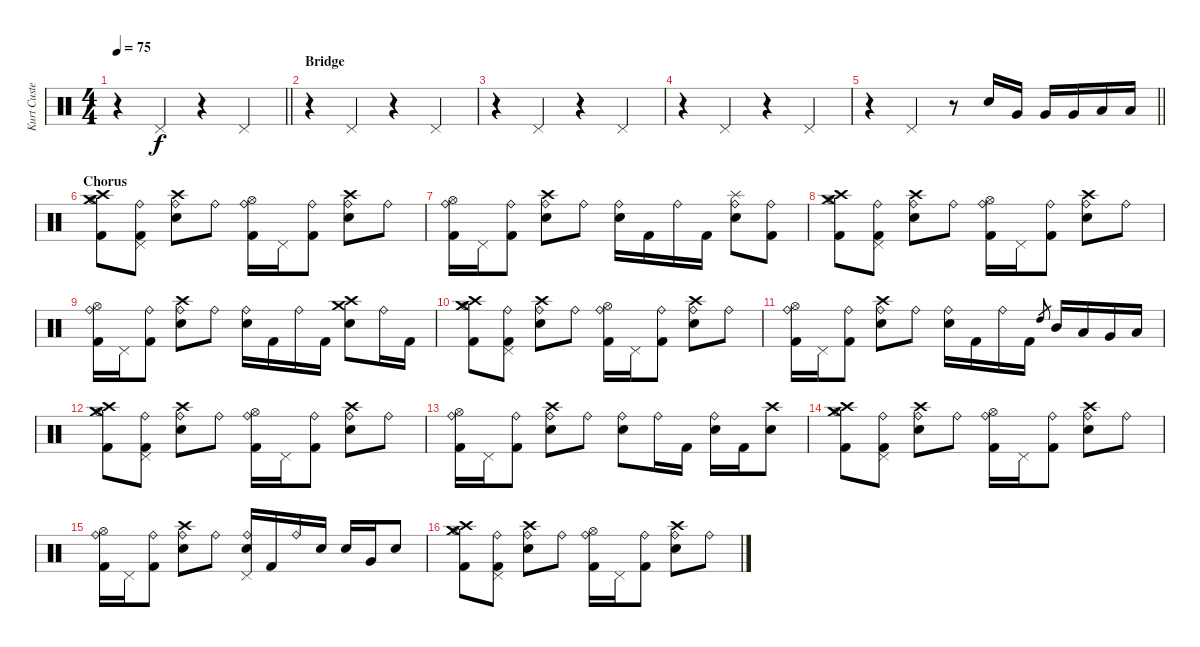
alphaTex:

\track ("Kurt Custer - Drums and Percussion" "Kurt Custe") {instrument percussion}
\staff
\articulation defaults
\ts (4 4)
\tempo 75
\clef neutral
\barLineRight lightlight
\ks c
r.4{dy ppp} "Pedal Hi-Hat (hit)".4{dy f} r.4 "Pedal Hi-Hat (hit)".4 |
\section ("" "Bridge")
r.4 "Pedal Hi-Hat (hit)".4 r.4 "Pedal Hi-Hat (hit)".4 |
r.4 "Pedal Hi-Hat (hit)".4 r.4 "Pedal Hi-Hat (hit)".4 |
r.4 "Pedal Hi-Hat (hit)".4 r.4 "Pedal Hi-Hat (hit)".4 |
\barLineRight lightlight
r.4 "Pedal Hi-Hat (hit)".4 r.8 "Snare (hit) 2".16 "Very Low Tom (hit)".16 "Very Low Tom (hit)".16 "Very Low Tom (hit)".16 "Low Floor Tom (hit)".16 "Low Floor Tom (hit)".16 |
\section ("" "Chorus")
("Crash medium (hit)" "Crash high (hit)" "Hi-Hat (open)" "Kick (hit) 2").8 ("Ride (bell)" "Pedal Hi-Hat (hit)" "Kick (hit) 2").8 ("Ride (bell)" "Crash high (hit)" "Snare (hit) 2").8 "Ride (bell)".8 ("Ride (bell)" "Hi-Hat (open)" "Kick (hit) 2").16 "Pedal Hi-Hat (hit)".16 ("Ride (bell)" "Kick (hit) 2").8 ("Ride (bell)" "Crash high (hit)" "Snare (hit) 2").8 "Ride (bell)".8 |
("Ride (bell)" "Hi-Hat (open)" "Kick (hit) 2").16 "Pedal Hi-Hat (hit)".16 ("Ride (bell)" "Kick (hit) 2").8 ("Ride (bell)" "Crash high (hit)" "Snare (hit) 2").8 "Ride (bell)".8 ("Ride (bell)" "Snare (hit) 2").16 "Kick (hit) 2".16 "Ride (bell)".16 "Kick (hit) 2".16 ("Ride (bell)" "Splash (hit)" "Snare (hit) 2").8 ("Ride (bell)" "Kick (hit) 2").8 |
("Crash medium (hit)" "Crash high (hit)" "Hi-Hat (open)" "Kick (hit) 2").8 ("Ride (bell)" "Pedal Hi-Hat (hit)" "Kick (hit) 2").8 ("Ride (bell)" "Crash high (hit)" "Snare (hit) 2").8 "Ride (bell)".8 ("Ride (bell)" "Hi-Hat (open)" "Kick (hit) 2").16 "Pedal Hi-Hat (hit)".16 ("Ride (bell)" "Kick (hit) 2").8 ("Ride (bell)" "Crash high (hit)" "Snare (hit) 2").8 "Ride (bell)".8 |
("Ride (bell)" "Hi-Hat (open)" "Kick (hit) 2").16 "Pedal Hi-Hat (hit)".16 ("Ride (bell)" "Kick (hit) 2").8 ("Ride (bell)" "Crash high (hit)" "Snare (hit) 2").8 "Ride (bell)".8 ("Ride (bell)" "Snare (hit) 2").16 "Kick (hit) 2".16 "Ride (bell)".16 "Kick (hit) 2".16 ("Crash medium (hit)" "Crash high (hit)" "Snare (hit) 2").8 "Ride (bell)".16 "Kick (hit) 2".16 |
("Crash medium (hit)" "Crash high (hit)" "Hi-Hat (open)" "Kick (hit) 2").8 ("Ride (bell)" "Pedal Hi-Hat (hit)" "Kick (hit) 2").8 ("Ride (bell)" "Crash high (hit)" "Snare (hit) 2").8 "Ride (bell)".8 ("Ride (bell)" "Hi-Hat (open)" "Kick (hit) 2").16 "Pedal Hi-Hat (hit)".16 ("Ride (bell)" "Kick (hit) 2").8 ("Ride (bell)" "Crash high (hit)" "Snare (hit) 2").8 "Ride (bell)".8 |
("Ride (bell)" "Hi-Hat (open)" "Kick (hit) 2").16 "Pedal Hi-Hat (hit)".16 ("Ride (bell)" "Kick (hit) 2").8 ("Ride (bell)" "Crash high (hit)" "Snare (hit) 2").8 "Ride (bell)".8 ("Ride (bell)" "Snare (hit) 2").16 "Kick (hit) 2".16 "Ride (bell)".16 "Kick (hit) 2".16 "High Tom (hit)".8{gr} "Mid Tom (hit)".16 "Low Tom (hit)".16 "Very Low Tom (hit)".16 "Low Floor Tom (hit)".16 |
("Crash medium (hit)" "Crash high (hit)" "Hi-Hat (open)" "Kick (hit) 2").8 ("Ride (bell)" "Pedal Hi-Hat (hit)" "Kick (hit) 2").8 ("Ride (bell)" "Crash high (hit)" "Snare (hit) 2").8 "Ride (bell)".8 ("Ride (bell)" "Hi-Hat (open)" "Kick (hit) 2").16 "Pedal Hi-Hat (hit)".16 ("Ride (bell)" "Kick (hit) 2").8 ("Ride (bell)" "Crash high (hit)" "Snare (hit) 2").8 "Ride (bell)".8 |
("Ride (bell)" "Hi-Hat (open)" "Kick (hit) 2").16 "Pedal Hi-Hat (hit)".16 ("Ride (bell)" "Kick (hit) 2").8 ("Ride (bell)" "Crash high (hit)" "Snare (hit) 2").8 "Ride (bell)".8 ("Ride (bell)" "Snare (hit) 2").8 "Ride (bell)".16 "Kick (hit) 2".16 ("Ride (bell)" "Snare (hit) 2").16 "Kick (hit) 2".16 ("Crash high (hit)" "Snare (hit) 2").8 |
("Crash medium (hit)" "Crash high (hit)" "Hi-Hat (open)" "Kick (hit) 2").8 ("Ride (bell)" "Pedal Hi-Hat (hit)" "Kick (hit) 2").8 ("Ride (bell)" "Crash high (hit)" "Snare (hit) 2").8 "Ride (bell)".8 ("Ride (bell)" "Hi-Hat (open)" "Kick (hit) 2").16 "Pedal Hi-Hat (hit)".16 ("Ride (bell)" "Kick (hit) 2").8 ("Ride (bell)" "Crash high (hit)" "Snare (hit) 2").8 "Ride (bell)".8 |
("Ride (bell)" "Hi-Hat (open)" "Kick (hit) 2").16 "Pedal Hi-Hat (hit)".16 ("Ride (bell)" "Kick (hit) 2").8 ("Ride (bell)" "Crash high (hit)" "Snare (hit) 2").8 "Ride (bell)".8 ("Ride (bell)" "Pedal Hi-Hat (hit)" "Snare (hit) 2").16 "Kick (hit) 2".16 "Ride (bell)".16 "Snare (hit) 2".16 "Snare (hit) 2".16 "Very Low Tom (hit)".16 "Snare (hit) 2".8 |
("Crash medium (hit)" "Crash high (hit)" "Hi-Hat (open)" "Kick (hit) 2").8 ("Ride (bell)" "Pedal Hi-Hat (hit)" "Kick (hit) 2").8 ("Ride (bell)" "Crash high (hit)" "Snare (hit) 2").8 "Ride (bell)".8 ("Ride (bell)" "Hi-Hat (open)" "Kick (hit) 2").16 "Pedal Hi-Hat (hit)".16 ("Ride (bell)" "Kick (hit) 2").8 ("Ride (bell)" "Crash high (hit)" "Snare (hit) 2").8 "Ride (bell)".8
